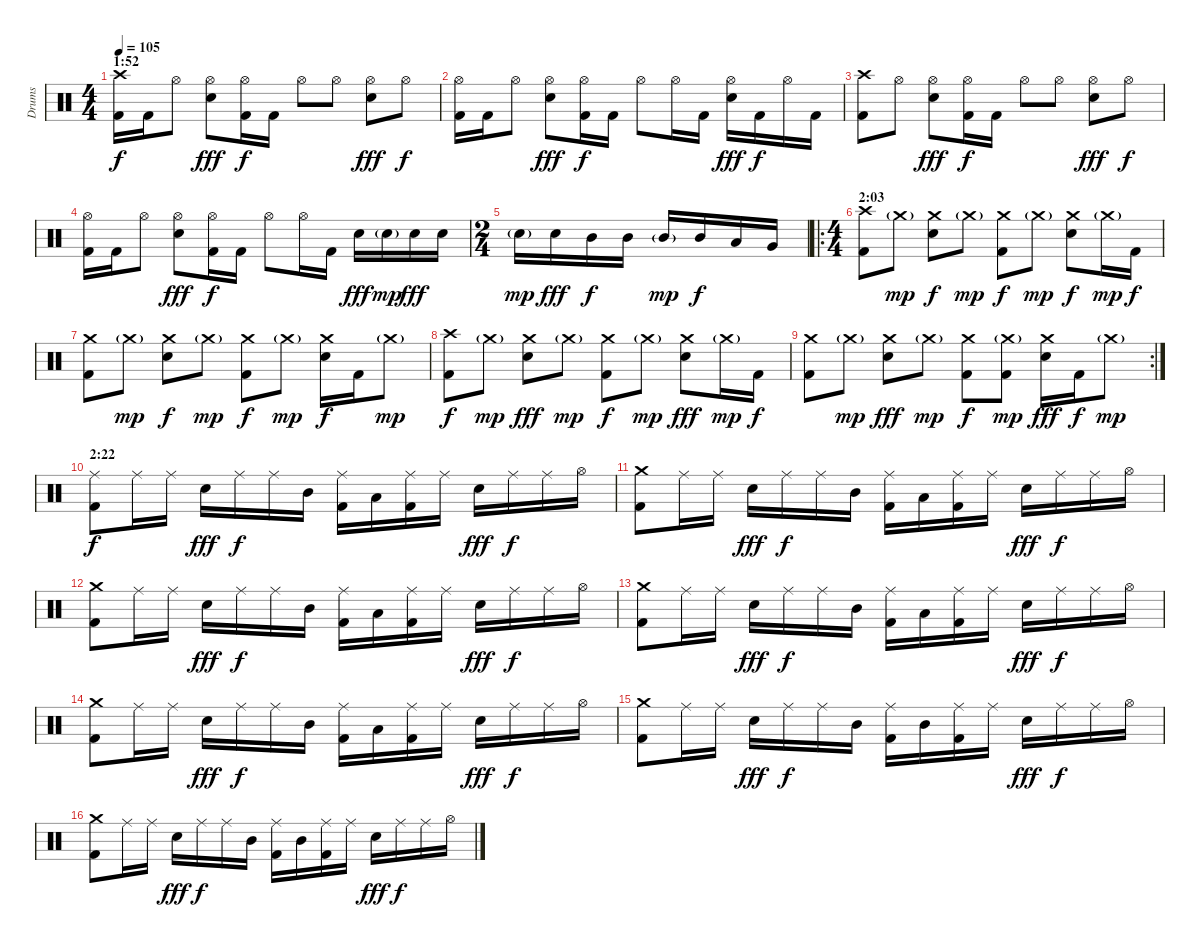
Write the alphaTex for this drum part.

\track ("Drums" "Drums") {instrument percussion}
\staff {score}
\articulation defaults
\ts (4 4)
\section ("" "1:52")
\tempo 105
\clef neutral
\ks c
("Crash high (hit)" "Kick (hit) 2").16{dy f} "Kick (hit) 2".16 "Hi-Hat (open)".8 ("Hi-Hat (open)" "Snare (hit) 2").8{dy fff} ("Hi-Hat (open)" "Kick (hit) 2").16{dy f} "Kick (hit) 2".16 "Hi-Hat (open)".8 "Hi-Hat (open)".8 ("Hi-Hat (open)" "Snare (hit) 2").8{dy fff} "Hi-Hat (open)".8{dy f} |
("Hi-Hat (open)" "Kick (hit) 2").16 "Kick (hit) 2".16 "Hi-Hat (open)".8 ("Hi-Hat (open)" "Snare (hit) 2").8{dy fff} ("Hi-Hat (open)" "Kick (hit) 2").16{dy f} "Kick (hit) 2".16 "Hi-Hat (open)".8 "Hi-Hat (open)".16 "Kick (hit) 2".16 ("Hi-Hat (open)" "Snare (hit) 2").16{dy fff} "Kick (hit) 2".16{dy f} "Hi-Hat (open)".16 "Kick (hit) 2".16 |
("Crash high (hit)" "Kick (hit) 2").8 "Hi-Hat (open)".8 ("Hi-Hat (open)" "Snare (hit) 2").8{dy fff} ("Hi-Hat (open)" "Kick (hit) 2").16{dy f} "Kick (hit) 2".16 "Hi-Hat (open)".8 "Hi-Hat (open)".8 ("Hi-Hat (open)" "Snare (hit) 2").8{dy fff} "Hi-Hat (open)".8{dy f} |
("Hi-Hat (open)" "Kick (hit) 2").16 "Kick (hit) 2".16 "Hi-Hat (open)".8 ("Hi-Hat (open)" "Snare (hit) 2").8{dy fff} ("Hi-Hat (open)" "Kick (hit) 2").16{dy f} "Kick (hit) 2".16 "Hi-Hat (open)".8 "Hi-Hat (open)".16 "Kick (hit) 2".16 "Snare (hit) 2".16{dy fff} "Snare (hit) 2"{g}.16{dy mp} "Snare (hit) 2".16{dy fff} "Snare (hit) 2".16 |
\ts (2 4)
"Snare (hit) 2"{g}.16{dy mp} "Snare (hit) 2".16{dy fff} "Mid Tom (hit)".16{dy f} "Mid Tom (hit)".16 "Mid Tom (hit)"{g}.16{dy mp} "Mid Tom (hit)".16{dy f} "Low Tom (hit)".16 "Very Low Tom (hit)".16 |
\ro
\ts (4 4)
\section ("" "2:03")
("Crash high (hit)" "Kick (hit) 2").8 "Crash medium (hit)"{g}.8{dy mp} ("Crash medium (hit)" "Snare (hit) 2").8{dy f} "Crash medium (hit)"{g}.8{dy mp} ("Crash medium (hit)" "Kick (hit) 2").8{dy f} "Crash medium (hit)"{g}.8{dy mp} ("Crash medium (hit)" "Snare (hit) 2").8{dy f} "Crash medium (hit)"{g}.16{dy mp} "Kick (hit) 2".16{dy f} |
("Crash medium (hit)" "Kick (hit) 2").8 "Crash medium (hit)"{g}.8{dy mp} ("Crash medium (hit)" "Snare (hit) 2").8{dy f} "Crash medium (hit)"{g}.8{dy mp} ("Crash medium (hit)" "Kick (hit) 2").8{dy f} "Crash medium (hit)"{g}.8{dy mp} ("Crash medium (hit)" "Snare (hit) 2").16{dy f} "Kick (hit) 2".16 "Crash medium (hit)"{g}.8{dy mp} |
("Crash high (hit)" "Kick (hit) 2").8{dy f} "Crash medium (hit)"{g}.8{dy mp} ("Crash medium (hit)" "Snare (hit) 2").8{dy fff} "Crash medium (hit)"{g}.8{dy mp} ("Crash medium (hit)" "Kick (hit) 2").8{dy f} "Crash medium (hit)"{g}.8{dy mp} ("Crash medium (hit)" "Snare (hit) 2").8{dy fff} "Crash medium (hit)"{g}.16{dy mp} "Kick (hit) 2".16{dy f} |
\rc 2
("Crash medium (hit)" "Kick (hit) 2").8 "Crash medium (hit)"{g}.8{dy mp} ("Crash medium (hit)" "Snare (hit) 2").8{dy fff} "Crash medium (hit)"{g}.8{dy mp} ("Crash medium (hit)" "Kick (hit) 2").8{dy f} ("Crash medium (hit)"{g} "Kick (hit) 2").8{dy mp} ("Crash medium (hit)" "Snare (hit) 2").16{dy fff} "Kick (hit) 2".16{dy f} "Crash medium (hit)"{g}.8{dy mp} |
\section ("" "2:22")
("Ride (middle)" "Kick (hit) 2").8{dy f} "Ride (middle)".16 "Ride (middle)".16 "Snare (hit) 2".16{dy fff} "Ride (middle)".16{dy f} "Ride (middle)".16 "Mid Tom (hit)".16 ("Ride (middle)" "Kick (hit) 2").16 "Low Tom (hit)".16 ("Ride (middle)" "Kick (hit) 2").16 "Ride (middle)".16 "Snare (hit) 2".16{dy fff} "Ride (middle)".16{dy f} "Ride (middle)".16 "Hi-Hat (open)".16 |
("Crash medium (hit)" "Kick (hit) 2").8 "Ride (middle)".16 "Ride (middle)".16 "Snare (hit) 2".16{dy fff} "Ride (middle)".16{dy f} "Ride (middle)".16 "Mid Tom (hit)".16 ("Ride (middle)" "Kick (hit) 2").16 "Low Tom (hit)".16 ("Ride (middle)" "Kick (hit) 2").16 "Ride (middle)".16 "Snare (hit) 2".16{dy fff} "Ride (middle)".16{dy f} "Ride (middle)".16 "Hi-Hat (open)".16 |
("Crash medium (hit)" "Kick (hit) 2").8 "Ride (middle)".16 "Ride (middle)".16 "Snare (hit) 2".16{dy fff} "Ride (middle)".16{dy f} "Ride (middle)".16 "Mid Tom (hit)".16 ("Ride (middle)" "Kick (hit) 2").16 "Low Tom (hit)".16 ("Ride (middle)" "Kick (hit) 2").16 "Ride (middle)".16 "Snare (hit) 2".16{dy fff} "Ride (middle)".16{dy f} "Ride (middle)".16 "Hi-Hat (open)".16 |
("Crash medium (hit)" "Kick (hit) 2").8 "Ride (middle)".16 "Ride (middle)".16 "Snare (hit) 2".16{dy fff} "Ride (middle)".16{dy f} "Ride (middle)".16 "Mid Tom (hit)".16 ("Ride (middle)" "Kick (hit) 2").16 "Low Tom (hit)".16 ("Ride (middle)" "Kick (hit) 2").16 "Ride (middle)".16 "Snare (hit) 2".16{dy fff} "Ride (middle)".16{dy f} "Ride (middle)".16 "Hi-Hat (open)".16 |
("Crash medium (hit)" "Kick (hit) 2").8 "Ride (middle)".16 "Ride (middle)".16 "Snare (hit) 2".16{dy fff} "Ride (middle)".16{dy f} "Ride (middle)".16 "Mid Tom (hit)".16 ("Ride (middle)" "Kick (hit) 2").16 "Low Tom (hit)".16 ("Ride (middle)" "Kick (hit) 2").16 "Ride (middle)".16 "Snare (hit) 2".16{dy fff} "Ride (middle)".16{dy f} "Ride (middle)".16 "Hi-Hat (open)".16 |
("Crash medium (hit)" "Kick (hit) 2").8 "Ride (middle)".16 "Ride (middle)".16 "Snare (hit) 2".16{dy fff} "Ride (middle)".16{dy f} "Ride (middle)".16 "Mid Tom (hit)".16 ("Ride (middle)" "Kick (hit) 2").16 "Mid Tom (hit)".16 ("Ride (middle)" "Kick (hit) 2").16 "Ride (middle)".16 "Snare (hit) 2".16{dy fff} "Ride (middle)".16{dy f} "Ride (middle)".16 "Hi-Hat (open)".16 |
("Crash medium (hit)" "Kick (hit) 2").8 "Ride (middle)".16 "Ride (middle)".16 "Snare (hit) 2".16{dy fff} "Ride (middle)".16{dy f} "Ride (middle)".16 "Mid Tom (hit)".16 ("Ride (middle)" "Kick (hit) 2").16 "Mid Tom (hit)".16 ("Ride (middle)" "Kick (hit) 2").16 "Ride (middle)".16 "Snare (hit) 2".16{dy fff} "Ride (middle)".16{dy f} "Ride (middle)".16 "Hi-Hat (open)".16
